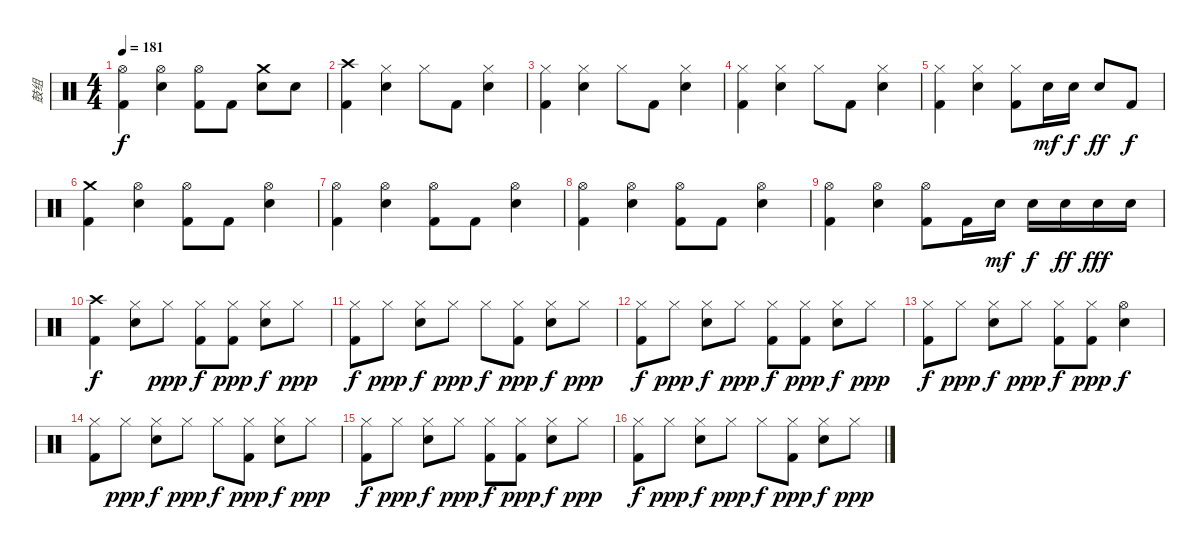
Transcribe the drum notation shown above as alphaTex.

\track ("鼓组" "鼓组") {instrument percussion}
\staff {score}
\articulation defaults
\ts (4 4)
\tempo 181
\clef neutral
\ks c
("Hi-Hat (open)" "Kick (hit) 2").4{dy f} ("Hi-Hat (open)" "Snare (hit) 2").4 ("Hi-Hat (open)" "Kick (hit) 2").8 "Kick (hit) 2".8 ("Crash medium (hit)" "Snare (hit) 2").8 "Snare (hit) 2".8 |
("Crash high (hit)" "Kick (hit) 2").4 ("Hi-Hat (closed)" "Snare (hit) 2").4 "Hi-Hat (closed)".8 "Kick (hit) 2".8 ("Hi-Hat (closed)" "Snare (hit) 2").4 |
("Hi-Hat (closed)" "Kick (hit) 2").4 ("Hi-Hat (closed)" "Snare (hit) 2").4 "Hi-Hat (closed)".8 "Kick (hit) 2".8 ("Hi-Hat (closed)" "Snare (hit) 2").4 |
("Hi-Hat (closed)" "Kick (hit) 2").4 ("Hi-Hat (closed)" "Snare (hit) 2").4 "Hi-Hat (closed)".8 "Kick (hit) 2".8 ("Hi-Hat (closed)" "Snare (hit) 2").4 |
("Hi-Hat (closed)" "Kick (hit) 2").4 ("Hi-Hat (closed)" "Snare (hit) 2").4 ("Hi-Hat (closed)" "Kick (hit) 2").8 "Snare (hit) 2".16{dy mf} "Snare (hit) 2".16{dy f} "Snare (hit) 2".8{dy ff} "Kick (hit) 2".8{dy f} |
("Crash medium (hit)" "Kick (hit) 2").4 ("Hi-Hat (open)" "Snare (hit) 2").4 ("Hi-Hat (open)" "Kick (hit) 2").8 "Kick (hit) 2".8 ("Hi-Hat (open)" "Snare (hit) 2").4 |
("Hi-Hat (open)" "Kick (hit) 2").4 ("Hi-Hat (open)" "Snare (hit) 2").4 ("Hi-Hat (open)" "Kick (hit) 2").8 "Kick (hit) 2".8 ("Hi-Hat (open)" "Snare (hit) 2").4 |
("Hi-Hat (open)" "Kick (hit) 2").4 ("Hi-Hat (open)" "Snare (hit) 2").4 ("Hi-Hat (open)" "Kick (hit) 2").8 "Kick (hit) 2".8 ("Hi-Hat (open)" "Snare (hit) 2").4 |
("Hi-Hat (open)" "Kick (hit) 2").4 ("Hi-Hat (open)" "Snare (hit) 2").4 ("Hi-Hat (open)" "Kick (hit) 2").8 "Kick (hit) 2".16 "Snare (hit) 2".16{dy mf} "Snare (hit) 2".16{dy f} "Snare (hit) 2".16{dy ff} "Snare (hit) 2".16{dy fff} "Snare (hit) 2".16 |
("Crash high (hit)" "Kick (hit) 2").4{dy f} ("Hi-Hat (closed)" "Snare (hit) 2").8 "Hi-Hat (closed)".8{dy ppp} ("Hi-Hat (closed)" "Kick (hit) 2").8{dy f} ("Hi-Hat (closed)" "Kick (hit) 2").8{dy ppp} ("Hi-Hat (closed)" "Snare (hit) 2").8{dy f} "Hi-Hat (closed)".8{dy ppp} |
("Hi-Hat (closed)" "Kick (hit) 2").8{dy f} "Hi-Hat (closed)".8{dy ppp} ("Hi-Hat (closed)" "Snare (hit) 2").8{dy f} "Hi-Hat (closed)".8{dy ppp} "Hi-Hat (closed)".8{dy f} ("Hi-Hat (closed)" "Kick (hit) 2").8{dy ppp} ("Hi-Hat (closed)" "Snare (hit) 2").8{dy f} "Hi-Hat (closed)".8{dy ppp} |
("Hi-Hat (closed)" "Kick (hit) 2").8{dy f} "Hi-Hat (closed)".8{dy ppp} ("Hi-Hat (closed)" "Snare (hit) 2").8{dy f} "Hi-Hat (closed)".8{dy ppp} ("Hi-Hat (closed)" "Kick (hit) 2").8{dy f} ("Hi-Hat (closed)" "Kick (hit) 2").8{dy ppp} ("Hi-Hat (closed)" "Snare (hit) 2").8{dy f} "Hi-Hat (closed)".8{dy ppp} |
("Hi-Hat (closed)" "Kick (hit) 2").8{dy f} "Hi-Hat (closed)".8{dy ppp} ("Hi-Hat (closed)" "Snare (hit) 2").8{dy f} "Hi-Hat (closed)".8{dy ppp} ("Hi-Hat (closed)" "Kick (hit) 2").8{dy f} ("Hi-Hat (closed)" "Kick (hit) 2").8{dy ppp} ("Hi-Hat (open)" "Snare (hit) 2").4{dy f} |
("Hi-Hat (closed)" "Kick (hit) 2").8 "Hi-Hat (closed)".8{dy ppp} ("Hi-Hat (closed)" "Snare (hit) 2").8{dy f} "Hi-Hat (closed)".8{dy ppp} "Hi-Hat (closed)".8{dy f} ("Hi-Hat (closed)" "Kick (hit) 2").8{dy ppp} ("Hi-Hat (closed)" "Snare (hit) 2").8{dy f} "Hi-Hat (closed)".8{dy ppp} |
("Hi-Hat (closed)" "Kick (hit) 2").8{dy f} "Hi-Hat (closed)".8{dy ppp} ("Hi-Hat (closed)" "Snare (hit) 2").8{dy f} "Hi-Hat (closed)".8{dy ppp} ("Hi-Hat (closed)" "Kick (hit) 2").8{dy f} ("Hi-Hat (closed)" "Kick (hit) 2").8{dy ppp} ("Hi-Hat (closed)" "Snare (hit) 2").8{dy f} "Hi-Hat (closed)".8{dy ppp} |
("Hi-Hat (closed)" "Kick (hit) 2").8{dy f} "Hi-Hat (closed)".8{dy ppp} ("Hi-Hat (closed)" "Snare (hit) 2").8{dy f} "Hi-Hat (closed)".8{dy ppp} "Hi-Hat (closed)".8{dy f} ("Hi-Hat (closed)" "Kick (hit) 2").8{dy ppp} ("Hi-Hat (closed)" "Snare (hit) 2").8{dy f} "Hi-Hat (closed)".8{dy ppp}
